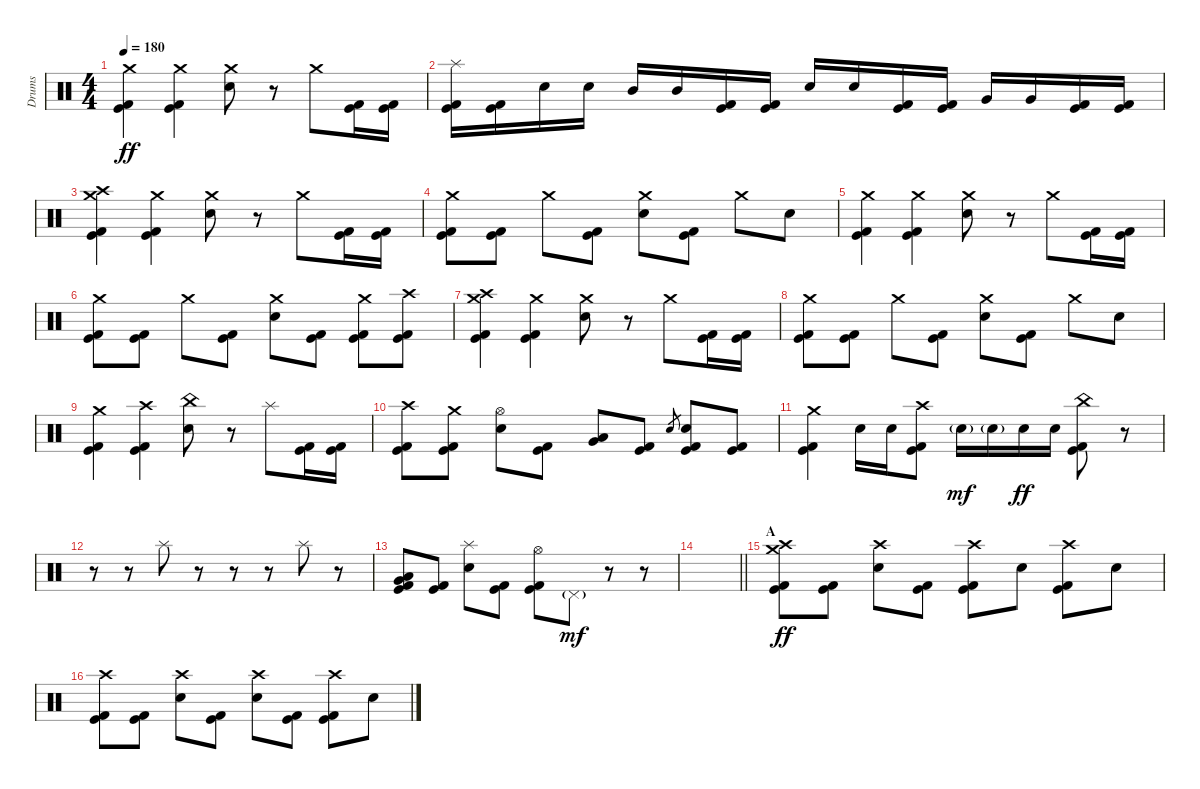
\track ("Drums" "Drums") {instrument percussion}
\staff {score}
\articulation defaults
\ts (4 4)
\tempo 180
\clef neutral
\ks c
("Crash medium (hit)" "Kick (hit)" "Kick (hit) 2").4{dy ff} ("Crash medium (hit)" "Kick (hit)" "Kick (hit) 2").4 ("Crash medium (hit)" "Electric Snare (hit)").8 r.8 "Crash medium (hit)".8 ("Kick (hit)" "Kick (hit) 2").16 ("Kick (hit)" "Kick (hit) 2").16 |
("Splash (hit)" "Kick (hit)" "Kick (hit) 2").16 ("Kick (hit)" "Kick (hit) 2").16 "Electric Snare (hit)".16 "Electric Snare (hit)".16 "Mid Tom (hit)".16 "Mid Tom (hit)".16 ("Kick (hit)" "Kick (hit) 2").16 ("Kick (hit)" "Kick (hit) 2").16 "Electric Snare (hit)".16 "Electric Snare (hit)".16 ("Kick (hit)" "Kick (hit) 2").16 ("Kick (hit)" "Kick (hit) 2").16 "Very Low Tom (hit)".16 "Very Low Tom (hit)".16 ("Kick (hit)" "Kick (hit) 2").16 ("Kick (hit)" "Kick (hit) 2").16 |
("Crash medium (hit)" "Crash high (hit)" "Kick (hit)" "Kick (hit) 2").4 ("Crash medium (hit)" "Kick (hit)" "Kick (hit) 2").4 ("Crash medium (hit)" "Electric Snare (hit)").8 r.8 "Crash medium (hit)".8 ("Kick (hit)" "Kick (hit) 2").16 ("Kick (hit)" "Kick (hit) 2").16 |
("Crash medium (hit)" "Kick (hit)" "Kick (hit) 2").8 ("Kick (hit)" "Kick (hit) 2").8 "Crash medium (hit)".8 ("Kick (hit)" "Kick (hit) 2").8 ("Crash medium (hit)" "Electric Snare (hit)").8 ("Kick (hit)" "Kick (hit) 2").8 "Crash medium (hit)".8 "Electric Snare (hit)".8 |
("Crash medium (hit)" "Kick (hit)" "Kick (hit) 2").4 ("Crash medium (hit)" "Kick (hit)" "Kick (hit) 2").4 ("Crash medium (hit)" "Electric Snare (hit)").8 r.8 "Crash medium (hit)".8 ("Kick (hit)" "Kick (hit) 2").16 ("Kick (hit)" "Kick (hit) 2").16 |
("Crash medium (hit)" "Kick (hit)" "Kick (hit) 2").8 ("Kick (hit)" "Kick (hit) 2").8 "Crash medium (hit)".8 ("Kick (hit)" "Kick (hit) 2").8 ("Crash medium (hit)" "Electric Snare (hit)").8 ("Kick (hit)" "Kick (hit) 2").8 ("Crash medium (hit)" "Kick (hit)" "Kick (hit) 2").8 ("Crash high (hit)" "Kick (hit)" "Kick (hit) 2").8 |
("Crash medium (hit)" "Crash high (hit)" "Kick (hit)" "Kick (hit) 2").4 ("Crash medium (hit)" "Kick (hit)" "Kick (hit) 2").4 ("Crash medium (hit)" "Electric Snare (hit)").8 r.8 "Crash medium (hit)".8 ("Kick (hit)" "Kick (hit) 2").16 ("Kick (hit)" "Kick (hit) 2").16 |
("Crash medium (hit)" "Kick (hit)" "Kick (hit) 2").8 ("Kick (hit)" "Kick (hit) 2").8 "Crash medium (hit)".8 ("Kick (hit)" "Kick (hit) 2").8 ("Crash medium (hit)" "Electric Snare (hit)").8 ("Kick (hit)" "Kick (hit) 2").8 "Crash medium (hit)".8 "Electric Snare (hit)".8 |
("Crash medium (hit)" "Kick (hit)" "Kick (hit) 2").4 ("Crash high (hit)" "Kick (hit)" "Kick (hit) 2").4 ("China (hit)" "Electric Snare (hit)").8 r.8 "Splash (hit)".8 ("Kick (hit)" "Kick (hit) 2").16 ("Kick (hit)" "Kick (hit) 2").16 |
("Crash high (hit)" "Kick (hit)" "Kick (hit) 2").8 ("Crash medium (hit)" "Kick (hit)" "Kick (hit) 2").8 ("Hi-Hat (open)" "Electric Snare (hit)").8 ("Kick (hit)" "Kick (hit) 2").8 ("Low Floor Tom (hit)" "Very Low Tom (hit)").8 ("Kick (hit)" "Kick (hit) 2").8 "Electric Snare (hit)".8{gr} ("Electric Snare (hit)" "Kick (hit)" "Kick (hit) 2").8 ("Kick (hit)" "Kick (hit) 2").8 |
("Crash medium (hit)" "Kick (hit)" "Kick (hit) 2").4 "Electric Snare (hit)".16 "Electric Snare (hit)".16 ("Crash high (hit)" "Kick (hit)" "Kick (hit) 2").8 "Electric Snare (hit)"{g}.16{dy mf} "Electric Snare (hit)"{g}.16 "Electric Snare (hit)".16{dy ff} "Electric Snare (hit)".16 ("China (hit)" "Kick (hit)" "Kick (hit) 2").8 r.8 |
r.8 r.8 "Splash (hit)".8 r.8 r.8 r.8 "Splash (hit)".8 r.8 |
("Low Floor Tom (hit)" "Very Low Tom (hit)" "Kick (hit)" "Kick (hit) 2").8 ("Kick (hit)" "Kick (hit) 2").8 ("Splash (hit)" "Electric Snare (hit)").8 ("Kick (hit)" "Kick (hit) 2").8 ("Hi-Hat (open)" "Kick (hit)" "Kick (hit) 2").8 "Pedal Hi-Hat (hit)"{g}.8{dy mf} r.8 r.8 |
\barLineRight lightlight
|
\section ("" "A")
("Crash medium (hit)" "Crash high (hit)" "Kick (hit)" "Kick (hit) 2").8{dy ff} ("Kick (hit)" "Kick (hit) 2").8 ("Crash high (hit)" "Electric Snare (hit)").8 ("Kick (hit)" "Kick (hit) 2").8 ("Crash high (hit)" "Kick (hit)" "Kick (hit) 2").8 "Electric Snare (hit)".8 ("Crash high (hit)" "Kick (hit)" "Kick (hit) 2").8 "Electric Snare (hit)".8 |
("Crash high (hit)" "Kick (hit)" "Kick (hit) 2").8 ("Kick (hit)" "Kick (hit) 2").8 ("Crash high (hit)" "Electric Snare (hit)").8 ("Kick (hit)" "Kick (hit) 2").8 ("Crash high (hit)" "Electric Snare (hit)").8 ("Kick (hit)" "Kick (hit) 2").8 ("Crash high (hit)" "Kick (hit)" "Kick (hit) 2").8 "Electric Snare (hit)".8
